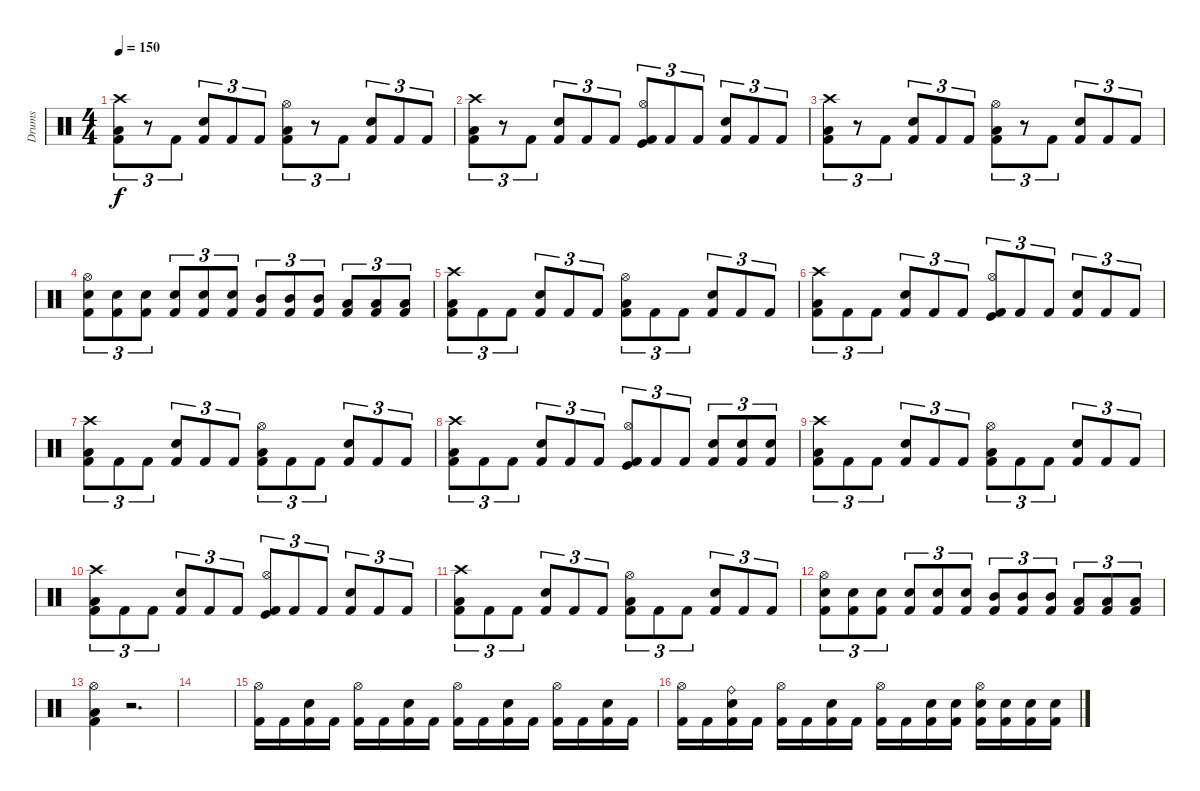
\track ("Drums" "Drums") {instrument percussion}
\staff {score}
\articulation defaults
\ts (4 4)
\tempo 150
\clef neutral
\ks c
("Crash high (hit)" "Low Floor Tom (hit)" "Kick (hit) 2").8{tu (3 2) dy f} r.8{tu (3 2)} "Kick (hit) 2".8{tu (3 2)} ("Snare (hit) 2" "Kick (hit) 2").8{tu (3 2)} "Kick (hit) 2".8{tu (3 2)} "Kick (hit) 2".8{tu (3 2)} ("Hi-Hat (open)" "Low Floor Tom (hit)" "Kick (hit) 2").8{tu (3 2)} r.8{tu (3 2)} "Kick (hit) 2".8{tu (3 2)} ("Snare (hit) 2" "Kick (hit) 2").8{tu (3 2)} "Kick (hit) 2".8{tu (3 2)} "Kick (hit) 2".8{tu (3 2)} |
("Crash high (hit)" "Low Floor Tom (hit)" "Kick (hit) 2").8{tu (3 2)} r.8{tu (3 2)} "Kick (hit) 2".8{tu (3 2)} ("Snare (hit) 2" "Kick (hit) 2").8{tu (3 2)} "Kick (hit) 2".8{tu (3 2)} "Kick (hit) 2".8{tu (3 2)} ("Hi-Hat (open)" "Kick (hit)" "Kick (hit) 2").8{tu (3 2)} "Kick (hit) 2".8{tu (3 2)} "Kick (hit) 2".8{tu (3 2)} ("Snare (hit) 2" "Kick (hit) 2").8{tu (3 2)} "Kick (hit) 2".8{tu (3 2)} "Kick (hit) 2".8{tu (3 2)} |
("Crash high (hit)" "Low Floor Tom (hit)" "Kick (hit) 2").8{tu (3 2)} r.8{tu (3 2)} "Kick (hit) 2".8{tu (3 2)} ("Snare (hit) 2" "Kick (hit) 2").8{tu (3 2)} "Kick (hit) 2".8{tu (3 2)} "Kick (hit) 2".8{tu (3 2)} ("Hi-Hat (open)" "Low Floor Tom (hit)" "Kick (hit) 2").8{tu (3 2)} r.8{tu (3 2)} "Kick (hit) 2".8{tu (3 2)} ("Snare (hit) 2" "Kick (hit) 2").8{tu (3 2)} "Kick (hit) 2".8{tu (3 2)} "Kick (hit) 2".8{tu (3 2)} |
("Hi-Hat (open)" "Snare (hit) 2" "Kick (hit) 2").8{tu (3 2)} ("Snare (hit) 2" "Kick (hit) 2").8{tu (3 2)} ("Snare (hit) 2" "Kick (hit) 2").8{tu (3 2)} ("Snare (hit) 2" "Kick (hit) 2").8{tu (3 2)} ("Snare (hit) 2" "Kick (hit) 2").8{tu (3 2)} ("Snare (hit) 2" "Kick (hit) 2").8{tu (3 2)} ("Mid Tom (hit)" "Kick (hit) 2").8{tu (3 2)} ("Mid Tom (hit)" "Kick (hit) 2").8{tu (3 2)} ("Mid Tom (hit)" "Kick (hit) 2").8{tu (3 2)} ("Low Tom (hit)" "Kick (hit) 2").8{tu (3 2)} ("Low Tom (hit)" "Kick (hit) 2").8{tu (3 2)} ("Low Tom (hit)" "Kick (hit) 2").8{tu (3 2)} |
("Crash high (hit)" "Low Floor Tom (hit)" "Kick (hit) 2").8{tu (3 2)} "Kick (hit) 2".8{tu (3 2)} "Kick (hit) 2".8{tu (3 2)} ("Snare (hit) 2" "Kick (hit) 2").8{tu (3 2)} "Kick (hit) 2".8{tu (3 2)} "Kick (hit) 2".8{tu (3 2)} ("Hi-Hat (open)" "Low Floor Tom (hit)" "Kick (hit) 2").8{tu (3 2)} "Kick (hit) 2".8{tu (3 2)} "Kick (hit) 2".8{tu (3 2)} ("Snare (hit) 2" "Kick (hit) 2").8{tu (3 2)} "Kick (hit) 2".8{tu (3 2)} "Kick (hit) 2".8{tu (3 2)} |
("Crash high (hit)" "Low Floor Tom (hit)" "Kick (hit) 2").8{tu (3 2)} "Kick (hit) 2".8{tu (3 2)} "Kick (hit) 2".8{tu (3 2)} ("Snare (hit) 2" "Kick (hit) 2").8{tu (3 2)} "Kick (hit) 2".8{tu (3 2)} "Kick (hit) 2".8{tu (3 2)} ("Hi-Hat (open)" "Kick (hit)" "Kick (hit) 2").8{tu (3 2)} "Kick (hit) 2".8{tu (3 2)} "Kick (hit) 2".8{tu (3 2)} ("Snare (hit) 2" "Kick (hit) 2").8{tu (3 2)} "Kick (hit) 2".8{tu (3 2)} "Kick (hit) 2".8{tu (3 2)} |
("Crash high (hit)" "Low Floor Tom (hit)" "Kick (hit) 2").8{tu (3 2)} "Kick (hit) 2".8{tu (3 2)} "Kick (hit) 2".8{tu (3 2)} ("Snare (hit) 2" "Kick (hit) 2").8{tu (3 2)} "Kick (hit) 2".8{tu (3 2)} "Kick (hit) 2".8{tu (3 2)} ("Hi-Hat (open)" "Low Floor Tom (hit)" "Kick (hit) 2").8{tu (3 2)} "Kick (hit) 2".8{tu (3 2)} "Kick (hit) 2".8{tu (3 2)} ("Snare (hit) 2" "Kick (hit) 2").8{tu (3 2)} "Kick (hit) 2".8{tu (3 2)} "Kick (hit) 2".8{tu (3 2)} |
("Crash high (hit)" "Low Floor Tom (hit)" "Kick (hit) 2").8{tu (3 2)} "Kick (hit) 2".8{tu (3 2)} "Kick (hit) 2".8{tu (3 2)} ("Snare (hit) 2" "Kick (hit) 2").8{tu (3 2)} "Kick (hit) 2".8{tu (3 2)} "Kick (hit) 2".8{tu (3 2)} ("Hi-Hat (open)" "Kick (hit)" "Kick (hit) 2").8{tu (3 2)} "Kick (hit) 2".8{tu (3 2)} "Kick (hit) 2".8{tu (3 2)} ("Snare (hit) 2" "Kick (hit) 2").8{tu (3 2)} ("Snare (hit) 2" "Kick (hit) 2").8{tu (3 2)} ("Snare (hit) 2" "Kick (hit) 2").8{tu (3 2)} |
("Crash high (hit)" "Low Floor Tom (hit)" "Kick (hit) 2").8{tu (3 2)} "Kick (hit) 2".8{tu (3 2)} "Kick (hit) 2".8{tu (3 2)} ("Snare (hit) 2" "Kick (hit) 2").8{tu (3 2)} "Kick (hit) 2".8{tu (3 2)} "Kick (hit) 2".8{tu (3 2)} ("Hi-Hat (open)" "Low Floor Tom (hit)" "Kick (hit) 2").8{tu (3 2)} "Kick (hit) 2".8{tu (3 2)} "Kick (hit) 2".8{tu (3 2)} ("Snare (hit) 2" "Kick (hit) 2").8{tu (3 2)} "Kick (hit) 2".8{tu (3 2)} "Kick (hit) 2".8{tu (3 2)} |
("Crash high (hit)" "Low Floor Tom (hit)" "Kick (hit) 2").8{tu (3 2)} "Kick (hit) 2".8{tu (3 2)} "Kick (hit) 2".8{tu (3 2)} ("Snare (hit) 2" "Kick (hit) 2").8{tu (3 2)} "Kick (hit) 2".8{tu (3 2)} "Kick (hit) 2".8{tu (3 2)} ("Hi-Hat (open)" "Kick (hit)" "Kick (hit) 2").8{tu (3 2)} "Kick (hit) 2".8{tu (3 2)} "Kick (hit) 2".8{tu (3 2)} ("Snare (hit) 2" "Kick (hit) 2").8{tu (3 2)} "Kick (hit) 2".8{tu (3 2)} "Kick (hit) 2".8{tu (3 2)} |
("Crash high (hit)" "Low Floor Tom (hit)" "Kick (hit) 2").8{tu (3 2)} "Kick (hit) 2".8{tu (3 2)} "Kick (hit) 2".8{tu (3 2)} ("Snare (hit) 2" "Kick (hit) 2").8{tu (3 2)} "Kick (hit) 2".8{tu (3 2)} "Kick (hit) 2".8{tu (3 2)} ("Hi-Hat (open)" "Low Floor Tom (hit)" "Kick (hit) 2").8{tu (3 2)} "Kick (hit) 2".8{tu (3 2)} "Kick (hit) 2".8{tu (3 2)} ("Snare (hit) 2" "Kick (hit) 2").8{tu (3 2)} "Kick (hit) 2".8{tu (3 2)} "Kick (hit) 2".8{tu (3 2)} |
("Hi-Hat (open)" "Snare (hit) 2" "Kick (hit) 2").8{tu (3 2)} ("Snare (hit) 2" "Kick (hit) 2").8{tu (3 2)} ("Snare (hit) 2" "Kick (hit) 2").8{tu (3 2)} ("Snare (hit) 2" "Kick (hit) 2").8{tu (3 2)} ("Snare (hit) 2" "Kick (hit) 2").8{tu (3 2)} ("Snare (hit) 2" "Kick (hit) 2").8{tu (3 2)} ("Mid Tom (hit)" "Kick (hit) 2").8{tu (3 2)} ("Mid Tom (hit)" "Kick (hit) 2").8{tu (3 2)} ("Mid Tom (hit)" "Kick (hit) 2").8{tu (3 2)} ("Low Tom (hit)" "Kick (hit) 2").8{tu (3 2)} ("Low Tom (hit)" "Kick (hit) 2").8{tu (3 2)} ("Low Tom (hit)" "Kick (hit) 2").8{tu (3 2)} |
("Hi-Hat (open)" "Low Floor Tom (hit)" "Kick (hit) 2").4 r.2{d} |
|
("Hi-Hat (open)" "Kick (hit) 2").16 "Kick (hit) 2".16 ("Electric Snare (hit)" "Kick (hit) 2").16 "Kick (hit) 2".16 ("Hi-Hat (open)" "Kick (hit) 2").16 "Kick (hit) 2".16 ("Electric Snare (hit)" "Kick (hit) 2").16 "Kick (hit) 2".16 ("Hi-Hat (open)" "Kick (hit) 2").16 "Kick (hit) 2".16 ("Electric Snare (hit)" "Kick (hit) 2").16 "Kick (hit) 2".16 ("Hi-Hat (open)" "Kick (hit) 2").16 "Kick (hit) 2".16 ("Electric Snare (hit)" "Kick (hit) 2").16 "Kick (hit) 2".16 |
("Hi-Hat (open)" "Kick (hit) 2").16 "Kick (hit) 2".16 ("Ride (bell)" "Electric Snare (hit)" "Kick (hit) 2").16 "Kick (hit) 2".16 ("Hi-Hat (open)" "Kick (hit) 2").16 "Kick (hit) 2".16 ("Electric Snare (hit)" "Kick (hit) 2").16 "Kick (hit) 2".16 ("Hi-Hat (open)" "Kick (hit) 2").16 "Kick (hit) 2".16 ("Snare (hit) 2" "Kick (hit) 2").16 ("Snare (hit) 2" "Kick (hit) 2").16 ("Hi-Hat (open)" "Snare (hit) 2" "Kick (hit) 2").16 ("Snare (hit) 2" "Kick (hit) 2").16 ("Snare (hit) 2" "Kick (hit) 2").16 ("Snare (hit) 2" "Kick (hit) 2").16
